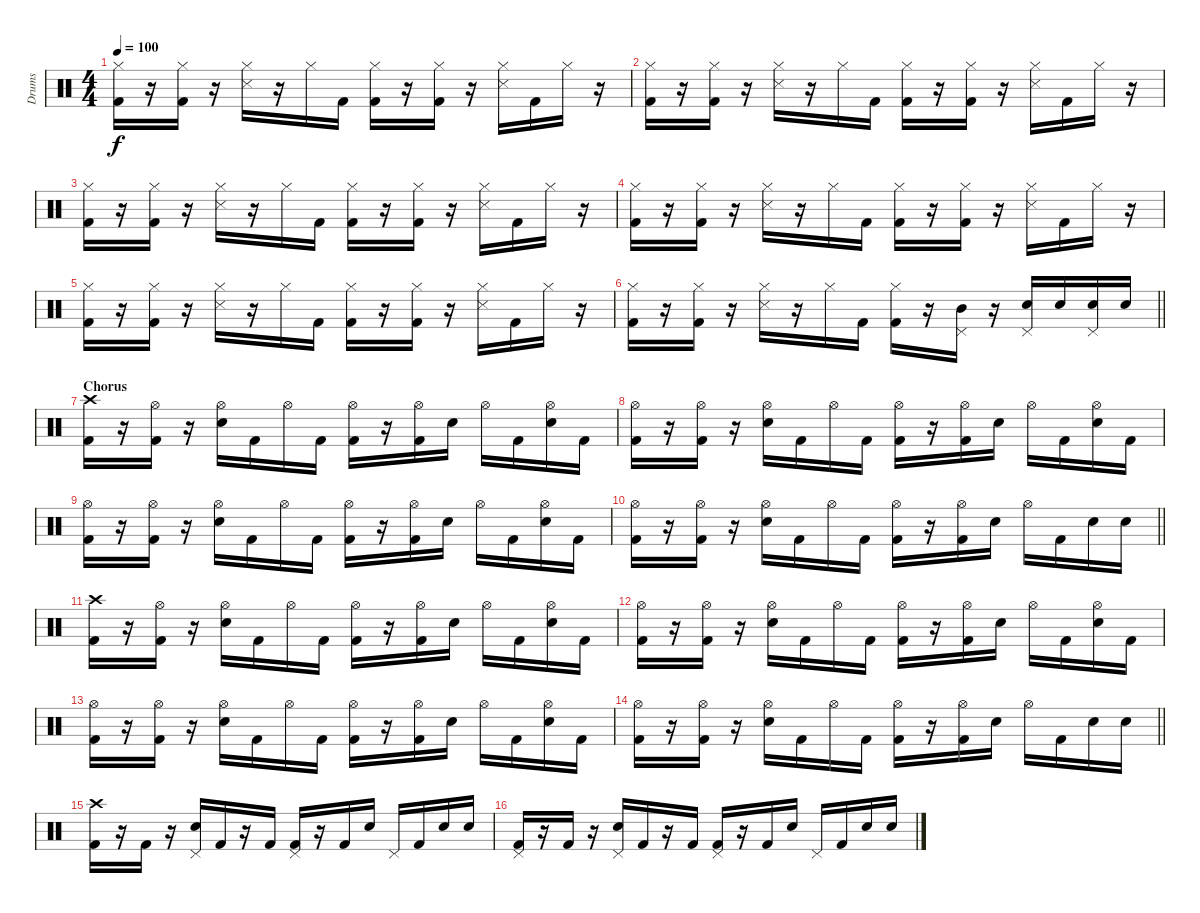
\track ("Drums" "Drums") {instrument percussion}
\staff {score}
\articulation defaults
\ts (4 4)
\tempo 100
\clef neutral
\ks c
("Hi-Hat (closed)" "Kick (hit) 2").16{dy f} r.16 ("Hi-Hat (closed)" "Kick (hit) 2").16 r.16 ("Hi-Hat (closed)" "Snare (side stick) 3").16 r.16 "Hi-Hat (closed)".16 "Kick (hit) 2".16 ("Hi-Hat (closed)" "Kick (hit) 2").16 r.16 ("Hi-Hat (closed)" "Kick (hit) 2").16 r.16 ("Hi-Hat (closed)" "Snare (side stick) 3").16 "Kick (hit) 2".16 "Hi-Hat (closed)".16 r.16 |
("Hi-Hat (closed)" "Kick (hit) 2").16 r.16 ("Hi-Hat (closed)" "Kick (hit) 2").16 r.16 ("Hi-Hat (closed)" "Snare (side stick) 3").16 r.16 "Hi-Hat (closed)".16 "Kick (hit) 2".16 ("Hi-Hat (closed)" "Kick (hit) 2").16 r.16 ("Hi-Hat (closed)" "Kick (hit) 2").16 r.16 ("Hi-Hat (closed)" "Snare (side stick) 3").16 "Kick (hit) 2".16 "Hi-Hat (closed)".16 r.16 |
("Hi-Hat (closed)" "Kick (hit) 2").16 r.16 ("Hi-Hat (closed)" "Kick (hit) 2").16 r.16 ("Hi-Hat (closed)" "Snare (side stick) 3").16 r.16 "Hi-Hat (closed)".16 "Kick (hit) 2".16 ("Hi-Hat (closed)" "Kick (hit) 2").16 r.16 ("Hi-Hat (closed)" "Kick (hit) 2").16 r.16 ("Hi-Hat (closed)" "Snare (side stick) 3").16 "Kick (hit) 2".16 "Hi-Hat (closed)".16 r.16 |
("Hi-Hat (closed)" "Kick (hit) 2").16 r.16 ("Hi-Hat (closed)" "Kick (hit) 2").16 r.16 ("Hi-Hat (closed)" "Snare (side stick) 3").16 r.16 "Hi-Hat (closed)".16 "Kick (hit) 2".16 ("Hi-Hat (closed)" "Kick (hit) 2").16 r.16 ("Hi-Hat (closed)" "Kick (hit) 2").16 r.16 ("Hi-Hat (closed)" "Snare (side stick) 3").16 "Kick (hit) 2".16 "Hi-Hat (closed)".16 r.16 |
("Hi-Hat (closed)" "Kick (hit) 2").16 r.16 ("Hi-Hat (closed)" "Kick (hit) 2").16 r.16 ("Hi-Hat (closed)" "Snare (side stick) 3").16 r.16 "Hi-Hat (closed)".16 "Kick (hit) 2".16 ("Hi-Hat (closed)" "Kick (hit) 2").16 r.16 ("Hi-Hat (closed)" "Kick (hit) 2").16 r.16 ("Hi-Hat (closed)" "Snare (side stick) 3").16 "Kick (hit) 2".16 "Hi-Hat (closed)".16 r.16 |
\barLineRight lightlight
("Hi-Hat (closed)" "Kick (hit) 2").16 r.16 ("Hi-Hat (closed)" "Kick (hit) 2").16 r.16 ("Hi-Hat (closed)" "Snare (side stick) 3").16 r.16 "Hi-Hat (closed)".16 "Kick (hit) 2".16 ("Hi-Hat (closed)" "Kick (hit) 2").16 r.16 ("Pedal Hi-Hat (hit)" "Mid Tom (hit)").16 r.16 ("Pedal Hi-Hat (hit)" "Snare (hit) 2").16 "Snare (hit) 2".16 ("Pedal Hi-Hat (hit)" "Snare (hit) 2").16 "Snare (hit) 2".16 |
\section ("" "Chorus")
("Crash high (hit)" "Kick (hit) 2").16 r.16 ("Hi-Hat (open)" "Kick (hit) 2").16 r.16 ("Hi-Hat (open)" "Snare (hit) 2").16 "Kick (hit) 2".16 "Hi-Hat (open)".16 "Kick (hit) 2".16 ("Hi-Hat (open)" "Kick (hit) 2").16 r.16 ("Hi-Hat (open)" "Kick (hit) 2").16 "Snare (hit) 2".16 "Hi-Hat (open)".16 "Kick (hit) 2".16 ("Hi-Hat (open)" "Snare (hit) 2").16 "Kick (hit) 2".16 |
("Hi-Hat (open)" "Kick (hit) 2").16 r.16 ("Hi-Hat (open)" "Kick (hit) 2").16 r.16 ("Hi-Hat (open)" "Snare (hit) 2").16 "Kick (hit) 2".16 "Hi-Hat (open)".16 "Kick (hit) 2".16 ("Hi-Hat (open)" "Kick (hit) 2").16 r.16 ("Hi-Hat (open)" "Kick (hit) 2").16 "Snare (hit) 2".16 "Hi-Hat (open)".16 "Kick (hit) 2".16 ("Hi-Hat (open)" "Snare (hit) 2").16 "Kick (hit) 2".16 |
("Hi-Hat (open)" "Kick (hit) 2").16 r.16 ("Hi-Hat (open)" "Kick (hit) 2").16 r.16 ("Hi-Hat (open)" "Snare (hit) 2").16 "Kick (hit) 2".16 "Hi-Hat (open)".16 "Kick (hit) 2".16 ("Hi-Hat (open)" "Kick (hit) 2").16 r.16 ("Hi-Hat (open)" "Kick (hit) 2").16 "Snare (hit) 2".16 "Hi-Hat (open)".16 "Kick (hit) 2".16 ("Hi-Hat (open)" "Snare (hit) 2").16 "Kick (hit) 2".16 |
\barLineRight lightlight
("Hi-Hat (open)" "Kick (hit) 2").16 r.16 ("Hi-Hat (open)" "Kick (hit) 2").16 r.16 ("Hi-Hat (open)" "Snare (hit) 2").16 "Kick (hit) 2".16 "Hi-Hat (open)".16 "Kick (hit) 2".16 ("Hi-Hat (open)" "Kick (hit) 2").16 r.16 ("Hi-Hat (open)" "Kick (hit) 2").16 "Snare (hit) 2".16 "Hi-Hat (open)".16 "Kick (hit) 2".16 "Snare (hit) 2".16 "Snare (hit) 2".16 |
("Crash high (hit)" "Kick (hit) 2").16 r.16 ("Hi-Hat (open)" "Kick (hit) 2").16 r.16 ("Hi-Hat (open)" "Snare (hit) 2").16 "Kick (hit) 2".16 "Hi-Hat (open)".16 "Kick (hit) 2".16 ("Hi-Hat (open)" "Kick (hit) 2").16 r.16 ("Hi-Hat (open)" "Kick (hit) 2").16 "Snare (hit) 2".16 "Hi-Hat (open)".16 "Kick (hit) 2".16 ("Hi-Hat (open)" "Snare (hit) 2").16 "Kick (hit) 2".16 |
("Hi-Hat (open)" "Kick (hit) 2").16 r.16 ("Hi-Hat (open)" "Kick (hit) 2").16 r.16 ("Hi-Hat (open)" "Snare (hit) 2").16 "Kick (hit) 2".16 "Hi-Hat (open)".16 "Kick (hit) 2".16 ("Hi-Hat (open)" "Kick (hit) 2").16 r.16 ("Hi-Hat (open)" "Kick (hit) 2").16 "Snare (hit) 2".16 "Hi-Hat (open)".16 "Kick (hit) 2".16 ("Hi-Hat (open)" "Snare (hit) 2").16 "Kick (hit) 2".16 |
("Hi-Hat (open)" "Kick (hit) 2").16 r.16 ("Hi-Hat (open)" "Kick (hit) 2").16 r.16 ("Hi-Hat (open)" "Snare (hit) 2").16 "Kick (hit) 2".16 "Hi-Hat (open)".16 "Kick (hit) 2".16 ("Hi-Hat (open)" "Kick (hit) 2").16 r.16 ("Hi-Hat (open)" "Kick (hit) 2").16 "Snare (hit) 2".16 "Hi-Hat (open)".16 "Kick (hit) 2".16 ("Hi-Hat (open)" "Snare (hit) 2").16 "Kick (hit) 2".16 |
\barLineRight lightlight
("Hi-Hat (open)" "Kick (hit) 2").16 r.16 ("Hi-Hat (open)" "Kick (hit) 2").16 r.16 ("Hi-Hat (open)" "Snare (hit) 2").16 "Kick (hit) 2".16 "Hi-Hat (open)".16 "Kick (hit) 2".16 ("Hi-Hat (open)" "Kick (hit) 2").16 r.16 ("Hi-Hat (open)" "Kick (hit) 2").16 "Snare (hit) 2".16 "Hi-Hat (open)".16 "Kick (hit) 2".16 "Snare (hit) 2".16 "Snare (hit) 2".16 |
("Crash high (hit)" "Kick (hit) 2").16 r.16 "Kick (hit) 2".16 r.16 ("Pedal Hi-Hat (hit)" "Snare (hit) 2").16 "Kick (hit) 2".16 r.16 "Kick (hit) 2".16 ("Pedal Hi-Hat (hit)" "Kick (hit) 2").16 r.16 "Kick (hit) 2".16 "Snare (hit) 2".16 "Pedal Hi-Hat (hit)".16 "Kick (hit) 2".16 "Snare (hit) 2".16 "Snare (hit) 2".16 |
("Pedal Hi-Hat (hit)" "Kick (hit) 2").16 r.16 "Kick (hit) 2".16 r.16 ("Pedal Hi-Hat (hit)" "Snare (hit) 2").16 "Kick (hit) 2".16 r.16 "Kick (hit) 2".16 ("Pedal Hi-Hat (hit)" "Kick (hit) 2").16 r.16 "Kick (hit) 2".16 "Snare (hit) 2".16 "Pedal Hi-Hat (hit)".16 "Kick (hit) 2".16 "Snare (hit) 2".16 "Snare (hit) 2".16
